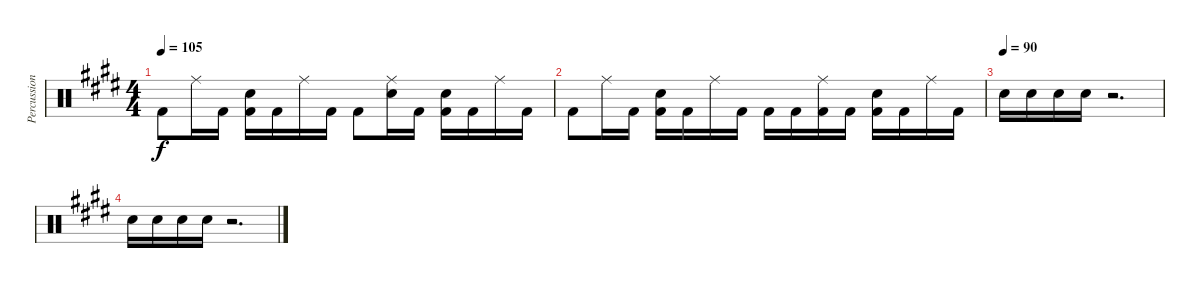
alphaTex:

\track ("Percussion" "Percussion") {instrument percussion}
\staff {score}
\articulation defaults
\ts (4 4)
\tempo 105
\clef neutral
\ks c#minor "Kick (hit) 2".8{dy f} "Ride (middle)".16 "Kick (hit) 2".16
("Snare (hit) 2" "Kick (hit) 2").16 "Kick (hit) 2".16 "Ride (middle)".16 "Kick (hit) 2".16 "Kick (hit) 2".8 ("Ride (middle)" "Snare (hit) 2").16 "Kick (hit) 2".16 ("Snare (hit) 2" "Kick (hit) 2").16 "Kick (hit) 2".16 "Ride (middle)".16 "Kick (hit) 2".16 |
"Kick (hit) 2".8 "Ride (middle)".16 "Kick (hit) 2".16 ("Snare (hit) 2" "Kick (hit) 2").16 "Kick (hit) 2".16 "Ride (middle)".16 "Kick (hit) 2".16 "Kick (hit) 2".16 "Kick (hit) 2".16 ("Ride (middle)" "Kick (hit) 2").16 "Kick (hit) 2".16 ("Snare (hit) 2" "Kick (hit) 2").16 "Kick (hit) 2".16 "Ride (middle)".16 "Kick (hit) 2".16 |
\tempo (90)
"Snare (hit) 2".16 "Snare (hit) 2".16 "Snare (hit) 2".16 "Snare (hit) 2".16 r.2{d} |
"Snare (hit) 2".16 "Snare (hit) 2".16 "Snare (hit) 2".16 "Snare (hit) 2".16 r.2{d}
